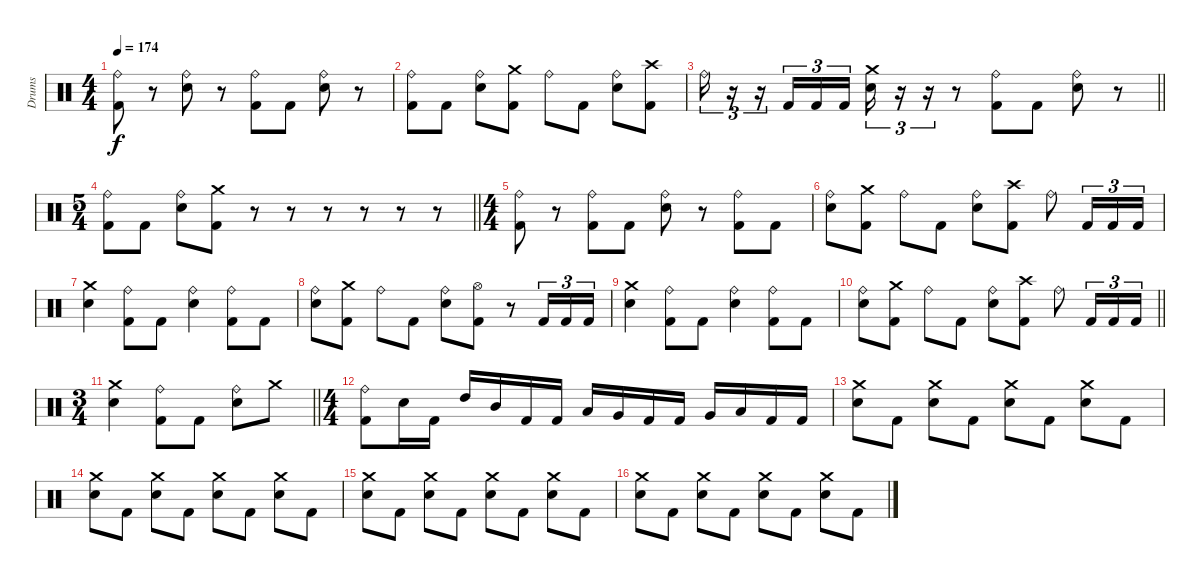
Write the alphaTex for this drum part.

\track ("Drums" "Drums") {instrument percussion}
\staff {score}
\articulation defaults
\ts (4 4)
\tempo 174
\clef neutral
\ks c
("Ride (bell)" "Kick (hit) 2").8{dy f} r.8 ("Ride (bell)" "Electric Snare (hit)").8 r.8 ("Ride (bell)" "Kick (hit) 2").8 "Kick (hit) 2".8 ("Ride (bell)" "Electric Snare (hit)").8 r.8 |
("Ride (bell)" "Kick (hit) 2").8 "Kick (hit) 2".8 ("Ride (bell)" "Electric Snare (hit)").8 ("Crash medium (hit)" "Kick (hit) 2").8 "Ride (bell)".8 "Kick (hit) 2".8 ("Ride (bell)" "Electric Snare (hit)").8 ("Crash high (hit)" "Kick (hit) 2").8 |
\barLineRight lightlight "Ride (bell)".16{tu (3 2)}
r.16{tu (3 2)} r.16{tu (3 2)} "Kick (hit) 2".16{tu (3 2)} "Kick (hit) 2".16{tu (3 2)} "Kick (hit) 2".16{tu (3 2)} ("Crash medium (hit)" "Electric Snare (hit)").16{tu (3 2)} r.16{tu (3 2)} r.16{tu (3 2)} r.8 ("Ride (bell)" "Kick (hit) 2").8 "Kick (hit) 2".8 ("Ride (bell)" "Electric Snare (hit)").8 r.8 |
\ts (5 4)
\barLineRight lightlight
("Ride (bell)" "Kick (hit) 2").8 "Kick (hit) 2".8 ("Ride (bell)" "Electric Snare (hit)").8 ("Crash medium (hit)" "Kick (hit) 2").8 r.8 r.8 r.8 r.8 r.8 r.8 |
\ts (4 4)
("Ride (bell)" "Kick (hit) 2").8 r.8 ("Ride (bell)" "Kick (hit) 2").8 "Kick (hit) 2".8 ("Ride (bell)" "Electric Snare (hit)").8 r.8 ("Ride (bell)" "Kick (hit) 2").8 "Kick (hit) 2".8 |
("Ride (bell)" "Electric Snare (hit)").8 ("Crash medium (hit)" "Kick (hit) 2").8 "Ride (bell)".8 "Kick (hit) 2".8 ("Ride (bell)" "Electric Snare (hit)").8 ("Crash high (hit)" "Kick (hit) 2").8 "Ride (bell)".8 "Kick (hit) 2".16{tu (3 2)} "Kick (hit) 2".16{tu (3 2)} "Kick (hit) 2".16{tu (3 2)} |
("Crash medium (hit)" "Electric Snare (hit)").4 ("Ride (bell)" "Kick (hit) 2").8 "Kick (hit) 2".8 ("Ride (bell)" "Electric Snare (hit)").4 ("Ride (bell)" "Kick (hit) 2").8 "Kick (hit) 2".8 |
("Ride (bell)" "Electric Snare (hit)").8 ("Crash medium (hit)" "Kick (hit) 2").8 "Ride (bell)".8 "Kick (hit) 2".8 ("Ride (bell)" "Electric Snare (hit)").8 ("Hi-Hat (open)" "Kick (hit) 2").8 r.8 "Kick (hit) 2".16{tu (3 2)} "Kick (hit) 2".16{tu (3 2)} "Kick (hit) 2".16{tu (3 2)} |
("Crash medium (hit)" "Electric Snare (hit)").4 ("Ride (bell)" "Kick (hit) 2").8 "Kick (hit) 2".8 ("Ride (bell)" "Electric Snare (hit)").4 ("Ride (bell)" "Kick (hit) 2").8 "Kick (hit) 2".8 |
\barLineRight lightlight
("Ride (bell)" "Electric Snare (hit)").8 ("Crash medium (hit)" "Kick (hit) 2").8 "Ride (bell)".8 "Kick (hit) 2".8 ("Ride (bell)" "Electric Snare (hit)").8 ("Crash high (hit)" "Kick (hit) 2").8 "Ride (bell)".8 "Kick (hit) 2".16{tu (3 2)} "Kick (hit) 2".16{tu (3 2)} "Kick (hit) 2".16{tu (3 2)} |
\ts (3 4)
\barLineRight lightlight
("Crash medium (hit)" "Electric Snare (hit)").4 ("Ride (bell)" "Kick (hit) 2").8 "Kick (hit) 2".8 ("Ride (bell)" "Electric Snare (hit)").8 "Crash medium (hit)".8 |
\ts (4 4)
("Ride (bell)" "Kick (hit) 2").8 "Electric Snare (hit)".16 "Kick (hit) 2".16 "High Tom (hit)".16 "Mid Tom (hit)".16 "Kick (hit) 2".16 "Kick (hit) 2".16 "Low Tom (hit)".16 "Very Low Tom (hit)".16 "Kick (hit) 2".16 "Kick (hit) 2".16 "Very Low Tom (hit)".16 "Low Floor Tom (hit)".16 "Kick (hit) 2".16 "Kick (hit) 2".16 |
("Crash medium (hit)" "Electric Snare (hit)").8 "Kick (hit) 2".8 ("Crash medium (hit)" "Electric Snare (hit)").8 "Kick (hit) 2".8 ("Crash medium (hit)" "Electric Snare (hit)").8 "Kick (hit) 2".8 ("Crash medium (hit)" "Electric Snare (hit)").8 "Kick (hit) 2".8 |
("Crash medium (hit)" "Electric Snare (hit)").8 "Kick (hit) 2".8 ("Crash medium (hit)" "Electric Snare (hit)").8 "Kick (hit) 2".8 ("Crash medium (hit)" "Electric Snare (hit)").8 "Kick (hit) 2".8 ("Crash medium (hit)" "Electric Snare (hit)").8 "Kick (hit) 2".8 |
("Crash medium (hit)" "Electric Snare (hit)").8 "Kick (hit) 2".8 ("Crash medium (hit)" "Electric Snare (hit)").8 "Kick (hit) 2".8 ("Crash medium (hit)" "Electric Snare (hit)").8 "Kick (hit) 2".8 ("Crash medium (hit)" "Electric Snare (hit)").8 "Kick (hit) 2".8 |
("Crash medium (hit)" "Electric Snare (hit)").8 "Kick (hit) 2".8 ("Crash medium (hit)" "Electric Snare (hit)").8 "Kick (hit) 2".8 ("Crash medium (hit)" "Electric Snare (hit)").8 "Kick (hit) 2".8 ("Crash medium (hit)" "Electric Snare (hit)").8 "Kick (hit) 2".8
